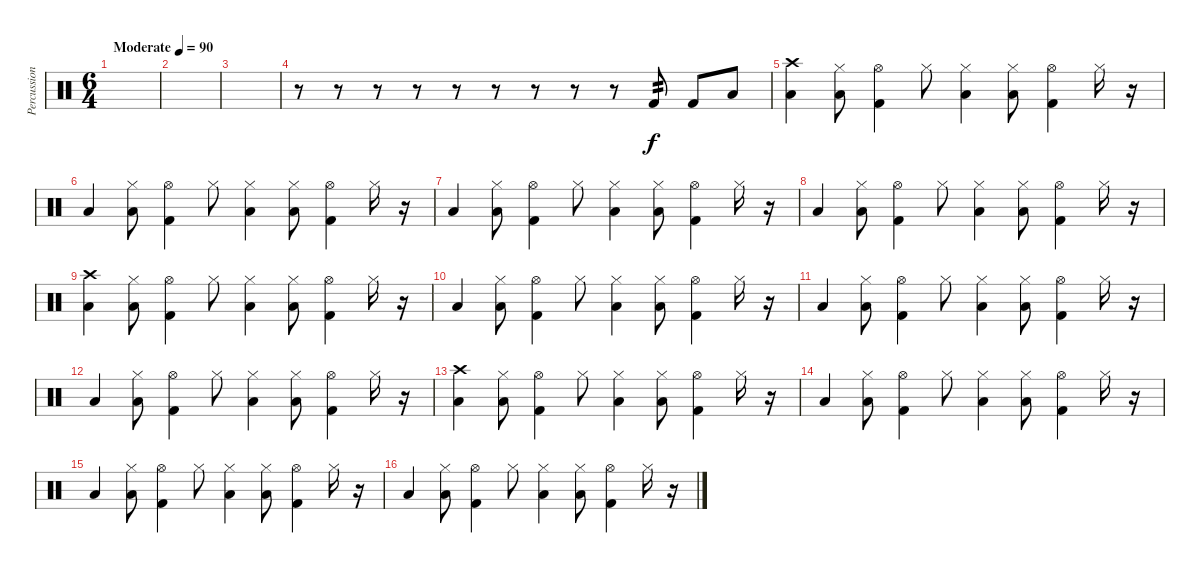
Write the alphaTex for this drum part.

\track ("Percussion" "Percussion") {instrument percussion}
\staff {score}
\articulation defaults
\ts (6 4)
\tempo (90 "Moderate")
\clef neutral
\ks c
|
|
|
r.8 r.8 r.8 r.8 r.8 r.8 r.8 r.8 r.8 "Kick (hit) 2".8{tp 2} "Kick (hit) 2".8 "Low Floor Tom (hit)".8 |
("Crash high (hit)" "Low Floor Tom (hit)").4 ("Hi-Hat (closed)" "Low Floor Tom (hit)").8 ("Hi-Hat (open)" "Kick (hit) 2").4 "Hi-Hat (closed)".8 ("Hi-Hat (closed)" "Low Floor Tom (hit)").4 ("Hi-Hat (closed)" "Low Floor Tom (hit)").8 ("Hi-Hat (open)" "Kick (hit) 2").4 "Hi-Hat (closed)".16 r.16 |
"Low Floor Tom (hit)".4 ("Hi-Hat (closed)" "Low Floor Tom (hit)").8 ("Hi-Hat (open)" "Kick (hit) 2").4 "Hi-Hat (closed)".8 ("Hi-Hat (closed)" "Low Floor Tom (hit)").4 ("Hi-Hat (closed)" "Low Floor Tom (hit)").8 ("Hi-Hat (open)" "Kick (hit) 2").4 "Hi-Hat (closed)".16 r.16 |
"Low Floor Tom (hit)".4 ("Hi-Hat (closed)" "Low Floor Tom (hit)").8 ("Hi-Hat (open)" "Kick (hit) 2").4 "Hi-Hat (closed)".8 ("Hi-Hat (closed)" "Low Floor Tom (hit)").4 ("Hi-Hat (closed)" "Low Floor Tom (hit)").8 ("Hi-Hat (open)" "Kick (hit) 2").4 "Hi-Hat (closed)".16 r.16 |
"Low Floor Tom (hit)".4 ("Hi-Hat (closed)" "Low Floor Tom (hit)").8 ("Hi-Hat (open)" "Kick (hit) 2").4 "Hi-Hat (closed)".8 ("Hi-Hat (closed)" "Low Floor Tom (hit)").4 ("Hi-Hat (closed)" "Low Floor Tom (hit)").8 ("Hi-Hat (open)" "Kick (hit) 2").4 "Hi-Hat (closed)".16 r.16 |
("Crash high (hit)" "Low Floor Tom (hit)").4 ("Hi-Hat (closed)" "Low Floor Tom (hit)").8 ("Hi-Hat (open)" "Kick (hit) 2").4 "Hi-Hat (closed)".8 ("Hi-Hat (closed)" "Low Floor Tom (hit)").4 ("Hi-Hat (closed)" "Low Floor Tom (hit)").8 ("Hi-Hat (open)" "Kick (hit) 2").4 "Hi-Hat (closed)".16 r.16 |
"Low Floor Tom (hit)".4 ("Hi-Hat (closed)" "Low Floor Tom (hit)").8 ("Hi-Hat (open)" "Kick (hit) 2").4 "Hi-Hat (closed)".8 ("Hi-Hat (closed)" "Low Floor Tom (hit)").4 ("Hi-Hat (closed)" "Low Floor Tom (hit)").8 ("Hi-Hat (open)" "Kick (hit) 2").4 "Hi-Hat (closed)".16 r.16 |
"Low Floor Tom (hit)".4 ("Hi-Hat (closed)" "Low Floor Tom (hit)").8 ("Hi-Hat (open)" "Kick (hit) 2").4 "Hi-Hat (closed)".8 ("Hi-Hat (closed)" "Low Floor Tom (hit)").4 ("Hi-Hat (closed)" "Low Floor Tom (hit)").8 ("Hi-Hat (open)" "Kick (hit) 2").4 "Hi-Hat (closed)".16 r.16 |
"Low Floor Tom (hit)".4 ("Hi-Hat (closed)" "Low Floor Tom (hit)").8 ("Hi-Hat (open)" "Kick (hit) 2").4 "Hi-Hat (closed)".8 ("Hi-Hat (closed)" "Low Floor Tom (hit)").4 ("Hi-Hat (closed)" "Low Floor Tom (hit)").8 ("Hi-Hat (open)" "Kick (hit) 2").4 "Hi-Hat (closed)".16 r.16 |
("Crash high (hit)" "Low Floor Tom (hit)").4 ("Hi-Hat (closed)" "Low Floor Tom (hit)").8 ("Hi-Hat (open)" "Kick (hit) 2").4 "Hi-Hat (closed)".8 ("Hi-Hat (closed)" "Low Floor Tom (hit)").4 ("Hi-Hat (closed)" "Low Floor Tom (hit)").8 ("Hi-Hat (open)" "Kick (hit) 2").4 "Hi-Hat (closed)".16 r.16 |
"Low Floor Tom (hit)".4 ("Hi-Hat (closed)" "Low Floor Tom (hit)").8 ("Hi-Hat (open)" "Kick (hit) 2").4 "Hi-Hat (closed)".8 ("Hi-Hat (closed)" "Low Floor Tom (hit)").4 ("Hi-Hat (closed)" "Low Floor Tom (hit)").8 ("Hi-Hat (open)" "Kick (hit) 2").4 "Hi-Hat (closed)".16 r.16 |
"Low Floor Tom (hit)".4 ("Hi-Hat (closed)" "Low Floor Tom (hit)").8 ("Hi-Hat (open)" "Kick (hit) 2").4 "Hi-Hat (closed)".8 ("Hi-Hat (closed)" "Low Floor Tom (hit)").4 ("Hi-Hat (closed)" "Low Floor Tom (hit)").8 ("Hi-Hat (open)" "Kick (hit) 2").4 "Hi-Hat (closed)".16 r.16 |
"Low Floor Tom (hit)".4 ("Hi-Hat (closed)" "Low Floor Tom (hit)").8 ("Hi-Hat (open)" "Kick (hit) 2").4 "Hi-Hat (closed)".8 ("Hi-Hat (closed)" "Low Floor Tom (hit)").4 ("Hi-Hat (closed)" "Low Floor Tom (hit)").8 ("Hi-Hat (open)" "Kick (hit) 2").4 "Hi-Hat (closed)".16 r.16
